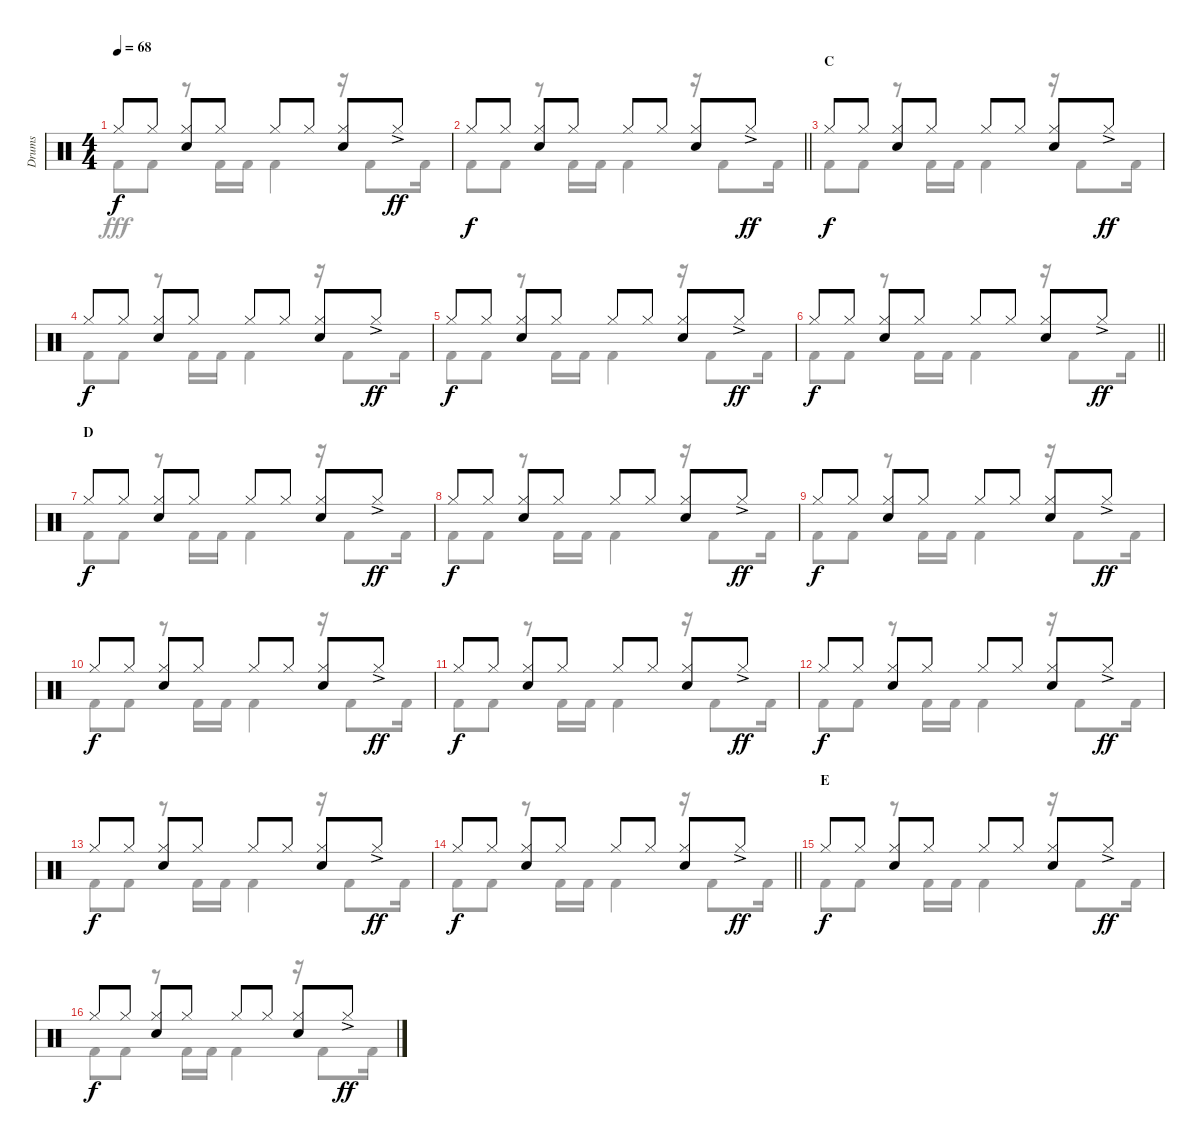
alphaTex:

\track ("Drums" "Drums") {instrument percussion}
\staff {score}
\articulation defaults
\voice
\ts (4 4)
\tempo 68
\clef neutral
\ks c "Hi-Hat (closed)".8{dy f} "Hi-Hat (closed)".8
("Hi-Hat (closed)" "Snare (hit) 2").8 "Hi-Hat (closed)".8 "Hi-Hat (closed)".8 "Hi-Hat (closed)".8 ("Hi-Hat (closed)" "Snare (hit) 2").8 "Hi-Hat (closed)"{ac}.8{dy ff} |
\barLineRight lightlight "Hi-Hat (closed)".8{dy f} "Hi-Hat (closed)".8
("Hi-Hat (closed)" "Snare (hit) 2").8 "Hi-Hat (closed)".8 "Hi-Hat (closed)".8 "Hi-Hat (closed)".8 ("Hi-Hat (closed)" "Snare (hit) 2").8 "Hi-Hat (closed)"{ac}.8{dy ff} |
\section ("" "C")
"Hi-Hat (closed)".8{dy f} "Hi-Hat (closed)".8 ("Hi-Hat (closed)" "Snare (hit) 2").8 "Hi-Hat (closed)".8 "Hi-Hat (closed)".8 "Hi-Hat (closed)".8 ("Hi-Hat (closed)" "Snare (hit) 2").8 "Hi-Hat (closed)"{ac}.8{dy ff} |
"Hi-Hat (closed)".8{dy f} "Hi-Hat (closed)".8 ("Hi-Hat (closed)" "Snare (hit) 2").8 "Hi-Hat (closed)".8 "Hi-Hat (closed)".8 "Hi-Hat (closed)".8 ("Hi-Hat (closed)" "Snare (hit) 2").8 "Hi-Hat (closed)"{ac}.8{dy ff} |
"Hi-Hat (closed)".8{dy f} "Hi-Hat (closed)".8 ("Hi-Hat (closed)" "Snare (hit) 2").8 "Hi-Hat (closed)".8 "Hi-Hat (closed)".8 "Hi-Hat (closed)".8 ("Hi-Hat (closed)" "Snare (hit) 2").8 "Hi-Hat (closed)"{ac}.8{dy ff} |
\barLineRight lightlight "Hi-Hat (closed)".8{dy f} "Hi-Hat (closed)".8
("Hi-Hat (closed)" "Snare (hit) 2").8 "Hi-Hat (closed)".8 "Hi-Hat (closed)".8 "Hi-Hat (closed)".8 ("Hi-Hat (closed)" "Snare (hit) 2").8 "Hi-Hat (closed)"{ac}.8{dy ff} |
\section ("" "D")
"Hi-Hat (closed)".8{dy f} "Hi-Hat (closed)".8 ("Hi-Hat (closed)" "Snare (hit) 2").8 "Hi-Hat (closed)".8 "Hi-Hat (closed)".8 "Hi-Hat (closed)".8 ("Hi-Hat (closed)" "Snare (hit) 2").8 "Hi-Hat (closed)"{ac}.8{dy ff} |
"Hi-Hat (closed)".8{dy f} "Hi-Hat (closed)".8 ("Hi-Hat (closed)" "Snare (hit) 2").8 "Hi-Hat (closed)".8 "Hi-Hat (closed)".8 "Hi-Hat (closed)".8 ("Hi-Hat (closed)" "Snare (hit) 2").8 "Hi-Hat (closed)"{ac}.8{dy ff} |
"Hi-Hat (closed)".8{dy f} "Hi-Hat (closed)".8 ("Hi-Hat (closed)" "Snare (hit) 2").8 "Hi-Hat (closed)".8 "Hi-Hat (closed)".8 "Hi-Hat (closed)".8 ("Hi-Hat (closed)" "Snare (hit) 2").8 "Hi-Hat (closed)"{ac}.8{dy ff} |
"Hi-Hat (closed)".8{dy f} "Hi-Hat (closed)".8 ("Hi-Hat (closed)" "Snare (hit) 2").8 "Hi-Hat (closed)".8 "Hi-Hat (closed)".8 "Hi-Hat (closed)".8 ("Hi-Hat (closed)" "Snare (hit) 2").8 "Hi-Hat (closed)"{ac}.8{dy ff} |
"Hi-Hat (closed)".8{dy f} "Hi-Hat (closed)".8 ("Hi-Hat (closed)" "Snare (hit) 2").8 "Hi-Hat (closed)".8 "Hi-Hat (closed)".8 "Hi-Hat (closed)".8 ("Hi-Hat (closed)" "Snare (hit) 2").8 "Hi-Hat (closed)"{ac}.8{dy ff} |
"Hi-Hat (closed)".8{dy f} "Hi-Hat (closed)".8 ("Hi-Hat (closed)" "Snare (hit) 2").8 "Hi-Hat (closed)".8 "Hi-Hat (closed)".8 "Hi-Hat (closed)".8 ("Hi-Hat (closed)" "Snare (hit) 2").8 "Hi-Hat (closed)"{ac}.8{dy ff} |
"Hi-Hat (closed)".8{dy f} "Hi-Hat (closed)".8 ("Hi-Hat (closed)" "Snare (hit) 2").8 "Hi-Hat (closed)".8 "Hi-Hat (closed)".8 "Hi-Hat (closed)".8 ("Hi-Hat (closed)" "Snare (hit) 2").8 "Hi-Hat (closed)"{ac}.8{dy ff} |
\barLineRight lightlight "Hi-Hat (closed)".8{dy f} "Hi-Hat (closed)".8
("Hi-Hat (closed)" "Snare (hit) 2").8 "Hi-Hat (closed)".8 "Hi-Hat (closed)".8 "Hi-Hat (closed)".8 ("Hi-Hat (closed)" "Snare (hit) 2").8 "Hi-Hat (closed)"{ac}.8{dy ff} |
\section ("" "E")
"Hi-Hat (closed)".8{dy f} "Hi-Hat (closed)".8 ("Hi-Hat (closed)" "Snare (hit) 2").8 "Hi-Hat (closed)".8 "Hi-Hat (closed)".8 "Hi-Hat (closed)".8 ("Hi-Hat (closed)" "Snare (hit) 2").8 "Hi-Hat (closed)"{ac}.8{dy ff} |
"Hi-Hat (closed)".8{dy f} "Hi-Hat (closed)".8 ("Hi-Hat (closed)" "Snare (hit) 2").8 "Hi-Hat (closed)".8 "Hi-Hat (closed)".8 "Hi-Hat (closed)".8 ("Hi-Hat (closed)" "Snare (hit) 2").8 "Hi-Hat (closed)"{ac}.8{dy ff}
\voice
\clef neutral
\ottava regular
\simile none
\ks c "Kick (hit) 2".8{dy fff} "Kick (hit) 2".8
r.8 "Kick (hit) 2".16 "Kick (hit) 2".16 "Kick (hit) 2".4 r.16 "Kick (hit) 2".8 "Kick (hit) 2".16 |
\barLineRight lightlight "Kick (hit) 2".8 "Kick (hit) 2".8
r.8 "Kick (hit) 2".16 "Kick (hit) 2".16 "Kick (hit) 2".4 r.16 "Kick (hit) 2".8 "Kick (hit) 2".16 |
"Kick (hit) 2".8 "Kick (hit) 2".8 r.8 "Kick (hit) 2".16 "Kick (hit) 2".16 "Kick (hit) 2".4 r.16 "Kick (hit) 2".8 "Kick (hit) 2".16 |
"Kick (hit) 2".8 "Kick (hit) 2".8 r.8 "Kick (hit) 2".16 "Kick (hit) 2".16 "Kick (hit) 2".4 r.16 "Kick (hit) 2".8 "Kick (hit) 2".16 |
"Kick (hit) 2".8 "Kick (hit) 2".8 r.8 "Kick (hit) 2".16 "Kick (hit) 2".16 "Kick (hit) 2".4 r.16 "Kick (hit) 2".8 "Kick (hit) 2".16 |
\barLineRight lightlight "Kick (hit) 2".8 "Kick (hit) 2".8
r.8 "Kick (hit) 2".16 "Kick (hit) 2".16 "Kick (hit) 2".4 r.16 "Kick (hit) 2".8 "Kick (hit) 2".16 |
"Kick (hit) 2".8 "Kick (hit) 2".8 r.8 "Kick (hit) 2".16 "Kick (hit) 2".16 "Kick (hit) 2".4 r.16 "Kick (hit) 2".8 "Kick (hit) 2".16 |
"Kick (hit) 2".8 "Kick (hit) 2".8 r.8 "Kick (hit) 2".16 "Kick (hit) 2".16 "Kick (hit) 2".4 r.16 "Kick (hit) 2".8 "Kick (hit) 2".16 |
"Kick (hit) 2".8 "Kick (hit) 2".8 r.8 "Kick (hit) 2".16 "Kick (hit) 2".16 "Kick (hit) 2".4 r.16 "Kick (hit) 2".8 "Kick (hit) 2".16 |
"Kick (hit) 2".8 "Kick (hit) 2".8 r.8 "Kick (hit) 2".16 "Kick (hit) 2".16 "Kick (hit) 2".4 r.16 "Kick (hit) 2".8 "Kick (hit) 2".16 |
"Kick (hit) 2".8 "Kick (hit) 2".8 r.8 "Kick (hit) 2".16 "Kick (hit) 2".16 "Kick (hit) 2".4 r.16 "Kick (hit) 2".8 "Kick (hit) 2".16 |
"Kick (hit) 2".8 "Kick (hit) 2".8 r.8 "Kick (hit) 2".16 "Kick (hit) 2".16 "Kick (hit) 2".4 r.16 "Kick (hit) 2".8 "Kick (hit) 2".16 |
"Kick (hit) 2".8 "Kick (hit) 2".8 r.8 "Kick (hit) 2".16 "Kick (hit) 2".16 "Kick (hit) 2".4 r.16 "Kick (hit) 2".8 "Kick (hit) 2".16 |
\barLineRight lightlight "Kick (hit) 2".8 "Kick (hit) 2".8
r.8 "Kick (hit) 2".16 "Kick (hit) 2".16 "Kick (hit) 2".4 r.16 "Kick (hit) 2".8 "Kick (hit) 2".16 |
"Kick (hit) 2".8 "Kick (hit) 2".8 r.8 "Kick (hit) 2".16 "Kick (hit) 2".16 "Kick (hit) 2".4 r.16 "Kick (hit) 2".8 "Kick (hit) 2".16 |
"Kick (hit) 2".8 "Kick (hit) 2".8 r.8 "Kick (hit) 2".16 "Kick (hit) 2".16 "Kick (hit) 2".4 r.16 "Kick (hit) 2".8 "Kick (hit) 2".16
